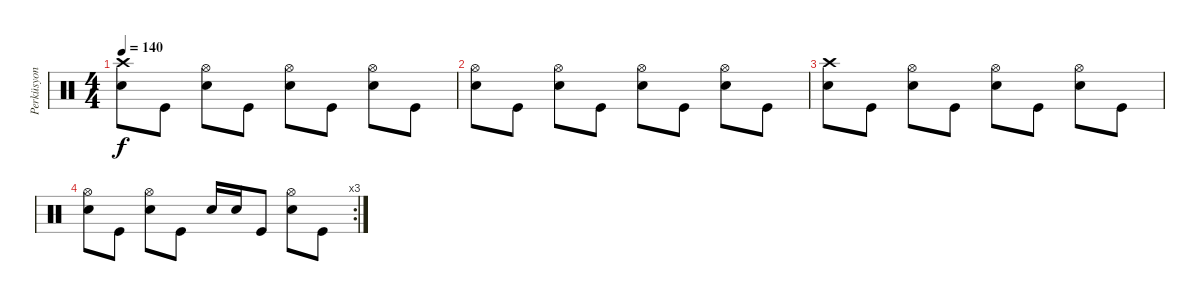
\track ("Perküsyon" "Perküsyon") {instrument percussion}
\staff {score}
\articulation defaults
\ts (4 4)
\tempo 140
\clef neutral
\ks c
("Electric Snare (hit)" "Crash high (hit)").8{dy f} "Kick (hit)".8 ("Electric Snare (hit)" "Hi-Hat (open)").8 "Kick (hit)".8 ("Electric Snare (hit)" "Hi-Hat (open)").8 "Kick (hit)".8 ("Electric Snare (hit)" "Hi-Hat (open)").8 "Kick (hit)".8 |
("Electric Snare (hit)" "Hi-Hat (open)").8 "Kick (hit)".8 ("Electric Snare (hit)" "Hi-Hat (open)").8 "Kick (hit)".8 ("Electric Snare (hit)" "Hi-Hat (open)").8 "Kick (hit)".8 ("Electric Snare (hit)" "Hi-Hat (open)").8 "Kick (hit)".8 |
("Electric Snare (hit)" "Crash high (hit)").8 "Kick (hit)".8 ("Electric Snare (hit)" "Hi-Hat (open)").8 "Kick (hit)".8 ("Electric Snare (hit)" "Hi-Hat (open)").8 "Kick (hit)".8 ("Electric Snare (hit)" "Hi-Hat (open)").8 "Kick (hit)".8 |
\rc 3
("Electric Snare (hit)" "Hi-Hat (open)").8 "Kick (hit)".8 ("Electric Snare (hit)" "Hi-Hat (open)").8 "Kick (hit)".8 "Electric Snare (hit)".16 "Electric Snare (hit)".16 "Kick (hit)".8 ("Electric Snare (hit)" "Hi-Hat (open)").8 "Kick (hit)".8
